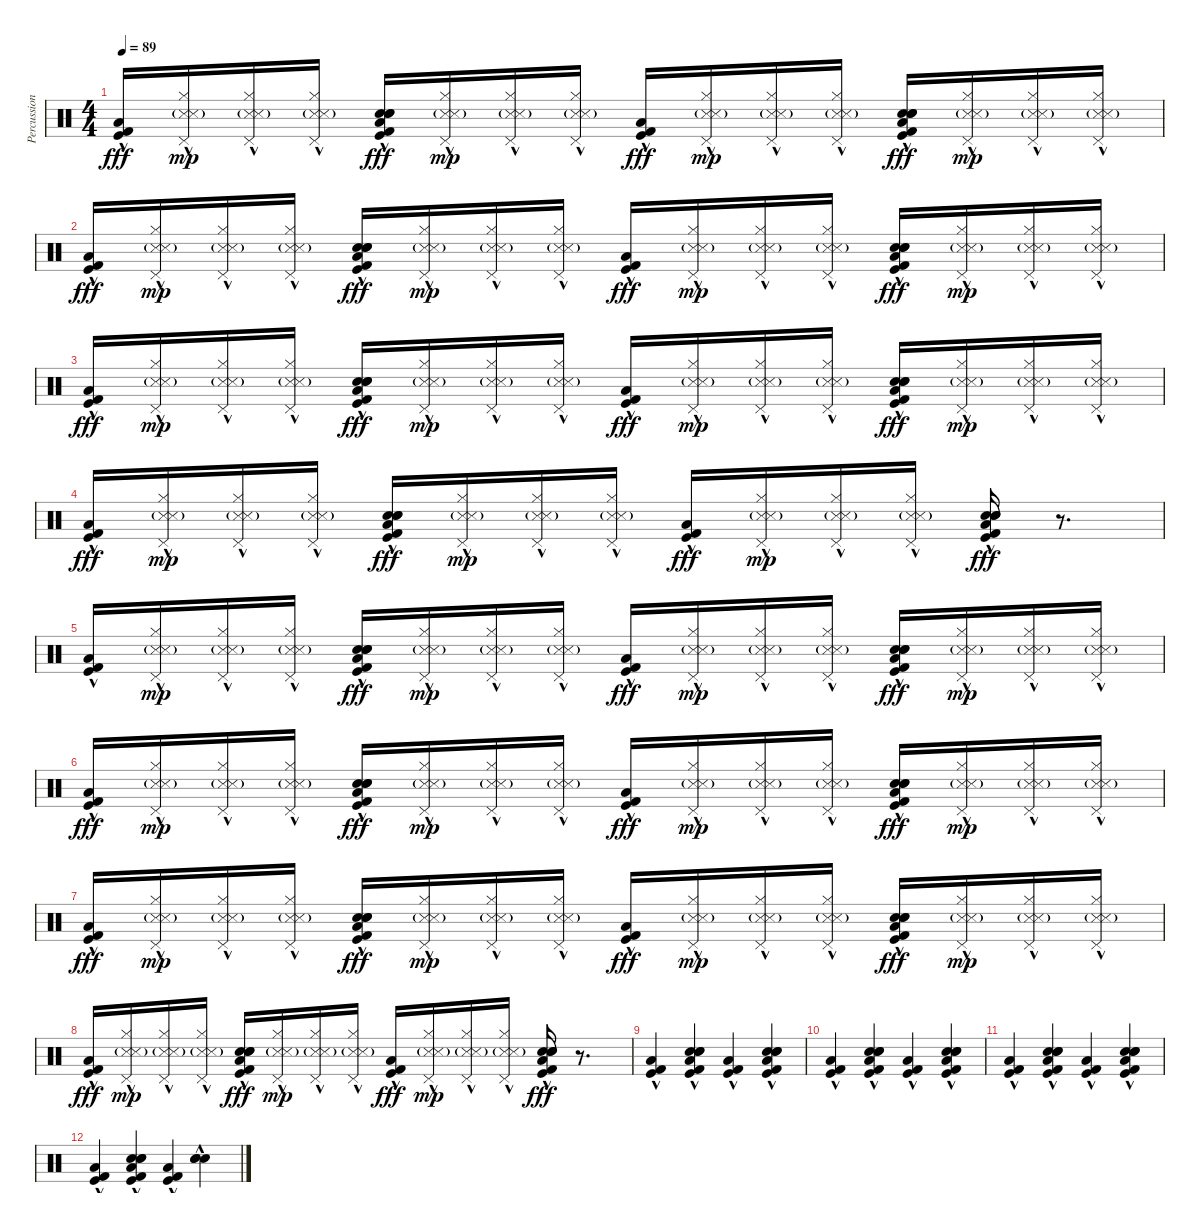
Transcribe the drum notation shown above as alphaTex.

\track ("Percussion" "Percussion") {instrument percussion}
\staff {score}
\articulation defaults
\ts (4 4)
\tempo 89
\clef neutral
\ks c
("Kick (hit) 2"{hac} "Kick (hit)"{hac} "Low Floor Tom (hit)"{hac}).16{dy fff} ("Pedal Hi-Hat (hit)"{hac} "Hi-Hat (closed)" "Snare (side stick) 3"{g} "Metronome (hit)"{g}).16{dy mp} ("Pedal Hi-Hat (hit)"{hac} "Hi-Hat (closed)" "Snare (side stick) 3"{g} "Metronome (hit)"{g}).16 ("Pedal Hi-Hat (hit)"{hac} "Hi-Hat (closed)" "Snare (side stick) 3"{g} "Metronome (hit)"{g}).16 ("Hand Clap (hit)"{hac} "Hand Clap (hit)"{hac} "Hand Clap (hit)"{hac} "Low Floor Tom (hit)"{hac} "Kick (hit)"{hac} "Kick (hit) 2"{hac}).16{dy fff} ("Pedal Hi-Hat (hit)"{hac} "Hi-Hat (closed)"{hac} "Snare (side stick) 3"{g} "Metronome (hit)"{g}).16{dy mp} ("Pedal Hi-Hat (hit)"{hac} "Hi-Hat (closed)"{hac} "Snare (side stick) 3"{g} "Metronome (hit)"{g}).16 ("Pedal Hi-Hat (hit)"{hac} "Hi-Hat (closed)"{hac} "Snare (side stick) 3"{g} "Metronome (hit)"{g}).16 ("Kick (hit) 2"{hac} "Kick (hit)"{hac} "Low Floor Tom (hit)"{hac}).16{dy fff} ("Pedal Hi-Hat (hit)"{hac} "Hi-Hat (closed)" "Snare (side stick) 3"{g} "Metronome (hit)"{g}).16{dy mp} ("Pedal Hi-Hat (hit)"{hac} "Hi-Hat (closed)" "Snare (side stick) 3"{g} "Metronome (hit)"{g}).16 ("Pedal Hi-Hat (hit)"{hac} "Hi-Hat (closed)" "Snare (side stick) 3"{g} "Metronome (hit)"{g}).16 ("Hand Clap (hit)"{hac} "Hand Clap (hit)"{hac} "Hand Clap (hit)"{hac} "Low Floor Tom (hit)"{hac} "Kick (hit)"{hac} "Kick (hit) 2"{hac}).16{dy fff} ("Pedal Hi-Hat (hit)"{hac} "Hi-Hat (closed)"{hac} "Snare (side stick) 3"{g} "Metronome (hit)"{g}).16{dy mp} ("Pedal Hi-Hat (hit)"{hac} "Hi-Hat (closed)"{hac} "Snare (side stick) 3"{g} "Metronome (hit)"{g}).16 ("Pedal Hi-Hat (hit)"{hac} "Hi-Hat (closed)"{hac} "Snare (side stick) 3"{g} "Metronome (hit)"{g}).16 |
("Kick (hit) 2"{hac} "Kick (hit)"{hac} "Low Floor Tom (hit)"{hac}).16{dy fff} ("Pedal Hi-Hat (hit)"{hac} "Hi-Hat (closed)" "Snare (side stick) 3"{g} "Metronome (hit)"{g}).16{dy mp} ("Pedal Hi-Hat (hit)"{hac} "Hi-Hat (closed)" "Snare (side stick) 3"{g} "Metronome (hit)"{g}).16 ("Pedal Hi-Hat (hit)"{hac} "Hi-Hat (closed)" "Snare (side stick) 3"{g} "Metronome (hit)"{g}).16 ("Hand Clap (hit)"{hac} "Hand Clap (hit)"{hac} "Hand Clap (hit)"{hac} "Low Floor Tom (hit)"{hac} "Kick (hit)"{hac} "Kick (hit) 2"{hac}).16{dy fff} ("Pedal Hi-Hat (hit)"{hac} "Hi-Hat (closed)"{hac} "Snare (side stick) 3"{g} "Metronome (hit)"{g}).16{dy mp} ("Pedal Hi-Hat (hit)"{hac} "Hi-Hat (closed)"{hac} "Snare (side stick) 3"{g} "Metronome (hit)"{g}).16 ("Pedal Hi-Hat (hit)"{hac} "Hi-Hat (closed)"{hac} "Snare (side stick) 3"{g} "Metronome (hit)"{g}).16 ("Kick (hit) 2"{hac} "Kick (hit)"{hac} "Low Floor Tom (hit)"{hac}).16{dy fff} ("Pedal Hi-Hat (hit)"{hac} "Hi-Hat (closed)" "Snare (side stick) 3"{g} "Metronome (hit)"{g}).16{dy mp} ("Pedal Hi-Hat (hit)"{hac} "Hi-Hat (closed)" "Snare (side stick) 3"{g} "Metronome (hit)"{g}).16 ("Pedal Hi-Hat (hit)"{hac} "Hi-Hat (closed)" "Snare (side stick) 3"{g} "Metronome (hit)"{g}).16 ("Hand Clap (hit)"{hac} "Hand Clap (hit)"{hac} "Hand Clap (hit)"{hac} "Low Floor Tom (hit)"{hac} "Kick (hit)"{hac} "Kick (hit) 2"{hac}).16{dy fff} ("Pedal Hi-Hat (hit)"{hac} "Hi-Hat (closed)"{hac} "Snare (side stick) 3"{g} "Metronome (hit)"{g}).16{dy mp} ("Pedal Hi-Hat (hit)"{hac} "Hi-Hat (closed)"{hac} "Snare (side stick) 3"{g} "Metronome (hit)"{g}).16 ("Pedal Hi-Hat (hit)"{hac} "Hi-Hat (closed)"{hac} "Snare (side stick) 3"{g} "Metronome (hit)"{g}).16 |
("Kick (hit) 2"{hac} "Kick (hit)"{hac} "Low Floor Tom (hit)"{hac}).16{dy fff} ("Pedal Hi-Hat (hit)"{hac} "Hi-Hat (closed)" "Snare (side stick) 3"{g} "Metronome (hit)"{g}).16{dy mp} ("Pedal Hi-Hat (hit)"{hac} "Hi-Hat (closed)" "Snare (side stick) 3"{g} "Metronome (hit)"{g}).16 ("Pedal Hi-Hat (hit)"{hac} "Hi-Hat (closed)" "Snare (side stick) 3"{g} "Metronome (hit)"{g}).16 ("Hand Clap (hit)"{hac} "Hand Clap (hit)"{hac} "Hand Clap (hit)"{hac} "Low Floor Tom (hit)"{hac} "Kick (hit)"{hac} "Kick (hit) 2"{hac}).16{dy fff} ("Pedal Hi-Hat (hit)"{hac} "Hi-Hat (closed)"{hac} "Snare (side stick) 3"{g} "Metronome (hit)"{g}).16{dy mp} ("Pedal Hi-Hat (hit)"{hac} "Hi-Hat (closed)"{hac} "Snare (side stick) 3"{g} "Metronome (hit)"{g}).16 ("Pedal Hi-Hat (hit)"{hac} "Hi-Hat (closed)"{hac} "Snare (side stick) 3"{g} "Metronome (hit)"{g}).16 ("Kick (hit) 2"{hac} "Kick (hit)"{hac} "Low Floor Tom (hit)"{hac}).16{dy fff} ("Pedal Hi-Hat (hit)"{hac} "Hi-Hat (closed)" "Snare (side stick) 3"{g} "Metronome (hit)"{g}).16{dy mp} ("Pedal Hi-Hat (hit)"{hac} "Hi-Hat (closed)" "Snare (side stick) 3"{g} "Metronome (hit)"{g}).16 ("Pedal Hi-Hat (hit)"{hac} "Hi-Hat (closed)" "Snare (side stick) 3"{g} "Metronome (hit)"{g}).16 ("Hand Clap (hit)"{hac} "Hand Clap (hit)"{hac} "Hand Clap (hit)"{hac} "Low Floor Tom (hit)"{hac} "Kick (hit)"{hac} "Kick (hit) 2"{hac}).16{dy fff} ("Pedal Hi-Hat (hit)"{hac} "Hi-Hat (closed)"{hac} "Snare (side stick) 3"{g} "Metronome (hit)"{g}).16{dy mp} ("Pedal Hi-Hat (hit)"{hac} "Hi-Hat (closed)"{hac} "Snare (side stick) 3"{g} "Metronome (hit)"{g}).16 ("Pedal Hi-Hat (hit)"{hac} "Hi-Hat (closed)"{hac} "Snare (side stick) 3"{g} "Metronome (hit)"{g}).16 |
("Kick (hit) 2"{hac} "Kick (hit)"{hac} "Low Floor Tom (hit)"{hac}).16{dy fff} ("Pedal Hi-Hat (hit)"{hac} "Hi-Hat (closed)" "Snare (side stick) 3"{g} "Metronome (hit)"{g}).16{dy mp} ("Pedal Hi-Hat (hit)"{hac} "Hi-Hat (closed)" "Snare (side stick) 3"{g} "Metronome (hit)"{g}).16 ("Pedal Hi-Hat (hit)"{hac} "Hi-Hat (closed)" "Snare (side stick) 3"{g} "Metronome (hit)"{g}).16 ("Hand Clap (hit)"{hac} "Hand Clap (hit)"{hac} "Hand Clap (hit)"{hac} "Low Floor Tom (hit)"{hac} "Kick (hit)"{hac} "Kick (hit) 2"{hac}).16{dy fff} ("Pedal Hi-Hat (hit)"{hac} "Hi-Hat (closed)"{hac} "Snare (side stick) 3"{g} "Metronome (hit)"{g}).16{dy mp} ("Pedal Hi-Hat (hit)"{hac} "Hi-Hat (closed)"{hac} "Snare (side stick) 3"{g} "Metronome (hit)"{g}).16 ("Pedal Hi-Hat (hit)"{hac} "Hi-Hat (closed)"{hac} "Snare (side stick) 3"{g} "Metronome (hit)"{g}).16 ("Kick (hit) 2"{hac} "Kick (hit)"{hac} "Low Floor Tom (hit)"{hac}).16{dy fff} ("Pedal Hi-Hat (hit)"{hac} "Hi-Hat (closed)" "Snare (side stick) 3"{g} "Metronome (hit)"{g}).16{dy mp} ("Pedal Hi-Hat (hit)"{hac} "Hi-Hat (closed)" "Snare (side stick) 3"{g} "Metronome (hit)"{g}).16 ("Pedal Hi-Hat (hit)"{hac} "Hi-Hat (closed)" "Snare (side stick) 3"{g} "Metronome (hit)"{g}).16 ("Hand Clap (hit)"{hac} "Hand Clap (hit)"{hac} "Hand Clap (hit)"{hac} "Low Floor Tom (hit)"{hac} "Kick (hit)"{hac} "Kick (hit) 2"{hac}).16{dy fff} r.8{d} |
("Kick (hit) 2"{hac} "Kick (hit)"{hac} "Low Floor Tom (hit)"{hac}).16 ("Pedal Hi-Hat (hit)"{hac} "Hi-Hat (closed)" "Snare (side stick) 3"{g} "Metronome (hit)"{g}).16{dy mp} ("Pedal Hi-Hat (hit)"{hac} "Hi-Hat (closed)" "Snare (side stick) 3"{g} "Metronome (hit)"{g}).16 ("Pedal Hi-Hat (hit)"{hac} "Hi-Hat (closed)" "Snare (side stick) 3"{g} "Metronome (hit)"{g}).16 ("Hand Clap (hit)"{hac} "Hand Clap (hit)"{hac} "Hand Clap (hit)"{hac} "Low Floor Tom (hit)"{hac} "Kick (hit)"{hac} "Kick (hit) 2"{hac}).16{dy fff} ("Pedal Hi-Hat (hit)"{hac} "Hi-Hat (closed)"{hac} "Snare (side stick) 3"{g} "Metronome (hit)"{g}).16{dy mp} ("Pedal Hi-Hat (hit)"{hac} "Hi-Hat (closed)"{hac} "Snare (side stick) 3"{g} "Metronome (hit)"{g}).16 ("Pedal Hi-Hat (hit)"{hac} "Hi-Hat (closed)"{hac} "Snare (side stick) 3"{g} "Metronome (hit)"{g}).16 ("Kick (hit) 2"{hac} "Kick (hit)"{hac} "Low Floor Tom (hit)"{hac}).16{dy fff} ("Pedal Hi-Hat (hit)"{hac} "Hi-Hat (closed)" "Snare (side stick) 3"{g} "Metronome (hit)"{g}).16{dy mp} ("Pedal Hi-Hat (hit)"{hac} "Hi-Hat (closed)" "Snare (side stick) 3"{g} "Metronome (hit)"{g}).16 ("Pedal Hi-Hat (hit)"{hac} "Hi-Hat (closed)" "Snare (side stick) 3"{g} "Metronome (hit)"{g}).16 ("Hand Clap (hit)"{hac} "Hand Clap (hit)"{hac} "Hand Clap (hit)"{hac} "Low Floor Tom (hit)"{hac} "Kick (hit)"{hac} "Kick (hit) 2"{hac}).16{dy fff} ("Pedal Hi-Hat (hit)"{hac} "Hi-Hat (closed)"{hac} "Snare (side stick) 3"{g} "Metronome (hit)"{g}).16{dy mp} ("Pedal Hi-Hat (hit)"{hac} "Hi-Hat (closed)"{hac} "Snare (side stick) 3"{g} "Metronome (hit)"{g}).16 ("Pedal Hi-Hat (hit)"{hac} "Hi-Hat (closed)"{hac} "Snare (side stick) 3"{g} "Metronome (hit)"{g}).16 |
("Kick (hit) 2"{hac} "Kick (hit)"{hac} "Low Floor Tom (hit)"{hac}).16{dy fff} ("Pedal Hi-Hat (hit)"{hac} "Hi-Hat (closed)" "Snare (side stick) 3"{g} "Metronome (hit)"{g}).16{dy mp} ("Pedal Hi-Hat (hit)"{hac} "Hi-Hat (closed)" "Snare (side stick) 3"{g} "Metronome (hit)"{g}).16 ("Pedal Hi-Hat (hit)"{hac} "Hi-Hat (closed)" "Snare (side stick) 3"{g} "Metronome (hit)"{g}).16 ("Hand Clap (hit)"{hac} "Hand Clap (hit)"{hac} "Hand Clap (hit)"{hac} "Low Floor Tom (hit)"{hac} "Kick (hit)"{hac} "Kick (hit) 2"{hac}).16{dy fff} ("Pedal Hi-Hat (hit)"{hac} "Hi-Hat (closed)"{hac} "Snare (side stick) 3"{g} "Metronome (hit)"{g}).16{dy mp} ("Pedal Hi-Hat (hit)"{hac} "Hi-Hat (closed)"{hac} "Snare (side stick) 3"{g} "Metronome (hit)"{g}).16 ("Pedal Hi-Hat (hit)"{hac} "Hi-Hat (closed)"{hac} "Snare (side stick) 3"{g} "Metronome (hit)"{g}).16 ("Kick (hit) 2"{hac} "Kick (hit)"{hac} "Low Floor Tom (hit)"{hac}).16{dy fff} ("Pedal Hi-Hat (hit)"{hac} "Hi-Hat (closed)" "Snare (side stick) 3"{g} "Metronome (hit)"{g}).16{dy mp} ("Pedal Hi-Hat (hit)"{hac} "Hi-Hat (closed)" "Snare (side stick) 3"{g} "Metronome (hit)"{g}).16 ("Pedal Hi-Hat (hit)"{hac} "Hi-Hat (closed)" "Snare (side stick) 3"{g} "Metronome (hit)"{g}).16 ("Hand Clap (hit)"{hac} "Hand Clap (hit)"{hac} "Hand Clap (hit)"{hac} "Low Floor Tom (hit)"{hac} "Kick (hit)"{hac} "Kick (hit) 2"{hac}).16{dy fff} ("Pedal Hi-Hat (hit)"{hac} "Hi-Hat (closed)"{hac} "Snare (side stick) 3"{g} "Metronome (hit)"{g}).16{dy mp} ("Pedal Hi-Hat (hit)"{hac} "Hi-Hat (closed)"{hac} "Snare (side stick) 3"{g} "Metronome (hit)"{g}).16 ("Pedal Hi-Hat (hit)"{hac} "Hi-Hat (closed)"{hac} "Snare (side stick) 3"{g} "Metronome (hit)"{g}).16 |
("Kick (hit) 2"{hac} "Kick (hit)"{hac} "Low Floor Tom (hit)"{hac}).16{dy fff} ("Pedal Hi-Hat (hit)"{hac} "Hi-Hat (closed)" "Snare (side stick) 3"{g} "Metronome (hit)"{g}).16{dy mp} ("Pedal Hi-Hat (hit)"{hac} "Hi-Hat (closed)" "Snare (side stick) 3"{g} "Metronome (hit)"{g}).16 ("Pedal Hi-Hat (hit)"{hac} "Hi-Hat (closed)" "Snare (side stick) 3"{g} "Metronome (hit)"{g}).16 ("Hand Clap (hit)"{hac} "Hand Clap (hit)"{hac} "Hand Clap (hit)"{hac} "Low Floor Tom (hit)"{hac} "Kick (hit)"{hac} "Kick (hit) 2"{hac}).16{dy fff} ("Pedal Hi-Hat (hit)"{hac} "Hi-Hat (closed)"{hac} "Snare (side stick) 3"{g} "Metronome (hit)"{g}).16{dy mp} ("Pedal Hi-Hat (hit)"{hac} "Hi-Hat (closed)"{hac} "Snare (side stick) 3"{g} "Metronome (hit)"{g}).16 ("Pedal Hi-Hat (hit)"{hac} "Hi-Hat (closed)"{hac} "Snare (side stick) 3"{g} "Metronome (hit)"{g}).16 ("Kick (hit) 2"{hac} "Kick (hit)"{hac} "Low Floor Tom (hit)"{hac}).16{dy fff} ("Pedal Hi-Hat (hit)"{hac} "Hi-Hat (closed)" "Snare (side stick) 3"{g} "Metronome (hit)"{g}).16{dy mp} ("Pedal Hi-Hat (hit)"{hac} "Hi-Hat (closed)" "Snare (side stick) 3"{g} "Metronome (hit)"{g}).16 ("Pedal Hi-Hat (hit)"{hac} "Hi-Hat (closed)" "Snare (side stick) 3"{g} "Metronome (hit)"{g}).16 ("Hand Clap (hit)"{hac} "Hand Clap (hit)"{hac} "Hand Clap (hit)"{hac} "Low Floor Tom (hit)"{hac} "Kick (hit)"{hac} "Kick (hit) 2"{hac}).16{dy fff} ("Pedal Hi-Hat (hit)"{hac} "Hi-Hat (closed)"{hac} "Snare (side stick) 3"{g} "Metronome (hit)"{g}).16{dy mp} ("Pedal Hi-Hat (hit)"{hac} "Hi-Hat (closed)"{hac} "Snare (side stick) 3"{g} "Metronome (hit)"{g}).16 ("Pedal Hi-Hat (hit)"{hac} "Hi-Hat (closed)"{hac} "Snare (side stick) 3"{g} "Metronome (hit)"{g}).16 |
("Kick (hit) 2"{hac} "Kick (hit)"{hac} "Low Floor Tom (hit)"{hac}).16{dy fff} ("Pedal Hi-Hat (hit)"{hac} "Hi-Hat (closed)" "Snare (side stick) 3"{g} "Metronome (hit)"{g}).16{dy mp} ("Pedal Hi-Hat (hit)"{hac} "Hi-Hat (closed)" "Snare (side stick) 3"{g} "Metronome (hit)"{g}).16 ("Pedal Hi-Hat (hit)"{hac} "Hi-Hat (closed)" "Snare (side stick) 3"{g} "Metronome (hit)"{g}).16 ("Hand Clap (hit)"{hac} "Hand Clap (hit)"{hac} "Hand Clap (hit)"{hac} "Low Floor Tom (hit)"{hac} "Kick (hit)"{hac} "Kick (hit) 2"{hac}).16{dy fff} ("Pedal Hi-Hat (hit)"{hac} "Hi-Hat (closed)"{hac} "Snare (side stick) 3"{g} "Metronome (hit)"{g}).16{dy mp} ("Pedal Hi-Hat (hit)"{hac} "Hi-Hat (closed)"{hac} "Snare (side stick) 3"{g} "Metronome (hit)"{g}).16 ("Pedal Hi-Hat (hit)"{hac} "Hi-Hat (closed)"{hac} "Snare (side stick) 3"{g} "Metronome (hit)"{g}).16 ("Kick (hit) 2"{hac} "Kick (hit)"{hac} "Low Floor Tom (hit)"{hac}).16{dy fff} ("Pedal Hi-Hat (hit)"{hac} "Hi-Hat (closed)" "Snare (side stick) 3"{g} "Metronome (hit)"{g}).16{dy mp} ("Pedal Hi-Hat (hit)"{hac} "Hi-Hat (closed)" "Snare (side stick) 3"{g} "Metronome (hit)"{g}).16 ("Pedal Hi-Hat (hit)"{hac} "Hi-Hat (closed)" "Snare (side stick) 3"{g} "Metronome (hit)"{g}).16 ("Hand Clap (hit)"{hac} "Hand Clap (hit)"{hac} "Hand Clap (hit)"{hac} "Low Floor Tom (hit)"{hac} "Kick (hit)"{hac} "Kick (hit) 2"{hac}).16{dy fff} r.8{d} |
("Kick (hit) 2"{hac} "Kick (hit)"{hac} "Low Floor Tom (hit)"{hac}).4 ("Hand Clap (hit)"{hac} "Hand Clap (hit)"{hac} "Hand Clap (hit)"{hac} "Low Floor Tom (hit)"{hac} "Kick (hit)"{hac} "Kick (hit) 2"{hac}).4 ("Kick (hit) 2"{hac} "Kick (hit)"{hac} "Low Floor Tom (hit)"{hac}).4 ("Hand Clap (hit)"{hac} "Hand Clap (hit)"{hac} "Hand Clap (hit)"{hac} "Low Floor Tom (hit)"{hac} "Kick (hit)"{hac} "Kick (hit) 2"{hac}).4 |
("Kick (hit) 2"{hac} "Kick (hit)"{hac} "Low Floor Tom (hit)"{hac}).4 ("Hand Clap (hit)"{hac} "Hand Clap (hit)"{hac} "Hand Clap (hit)"{hac} "Low Floor Tom (hit)"{hac} "Kick (hit)"{hac} "Kick (hit) 2"{hac}).4 ("Kick (hit) 2"{hac} "Kick (hit)"{hac} "Low Floor Tom (hit)"{hac}).4 ("Hand Clap (hit)"{hac} "Hand Clap (hit)"{hac} "Hand Clap (hit)"{hac} "Low Floor Tom (hit)"{hac} "Kick (hit)"{hac} "Kick (hit) 2"{hac}).4 |
("Kick (hit) 2"{hac} "Kick (hit)"{hac} "Low Floor Tom (hit)"{hac}).4 ("Hand Clap (hit)"{hac} "Hand Clap (hit)"{hac} "Hand Clap (hit)"{hac} "Low Floor Tom (hit)"{hac} "Kick (hit)"{hac} "Kick (hit) 2"{hac}).4 ("Kick (hit) 2"{hac} "Kick (hit)"{hac} "Low Floor Tom (hit)"{hac}).4 ("Hand Clap (hit)"{hac} "Hand Clap (hit)"{hac} "Hand Clap (hit)"{hac} "Low Floor Tom (hit)"{hac} "Kick (hit)"{hac} "Kick (hit) 2"{hac}).4 |
("Kick (hit) 2"{hac} "Kick (hit)"{hac} "Low Floor Tom (hit)"{hac}).4 ("Hand Clap (hit)"{hac} "Hand Clap (hit)"{hac} "Hand Clap (hit)"{hac} "Low Floor Tom (hit)"{hac} "Kick (hit)"{hac} "Kick (hit) 2"{hac}).4 ("Kick (hit) 2"{hac} "Kick (hit)"{hac} "Low Floor Tom (hit)"{hac}).4 ("Hand Clap (hit)"{hac} "Hand Clap (hit)"{hac} "Hand Clap (hit)"{hac}).4
